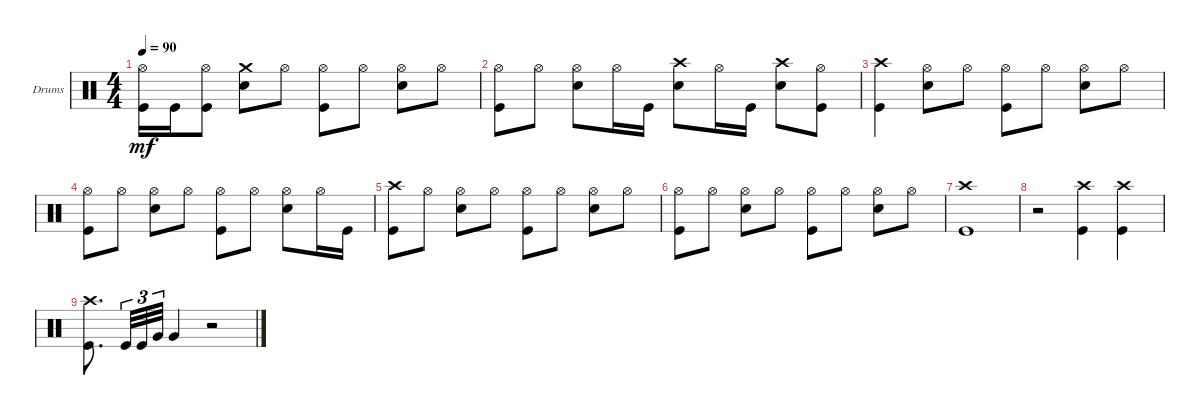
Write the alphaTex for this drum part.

\bracketExtendMode groupsimilarinstruments
\firstSystemTrackNameOrientation horizontal
\otherSystemsTrackNameOrientation horizontal
\track ("Arin Ilejay" "Drums") {instrument percussion}
\staff {score}
\articulation defaults
\ts (4 4)
\tempo 90
\clef neutral
\ks c
("Kick (hit)" "Hi-Hat (open)").16{dy mf} "Kick (hit)".16 ("Kick (hit)" "Hi-Hat (open)").8 ("Snare (hit) 2" "Crash medium (hit)").8 "Hi-Hat (open)".8 ("Hi-Hat (open)" "Kick (hit)").8 "Hi-Hat (open)".8 ("Snare (hit) 2" "Hi-Hat (open)").8 "Hi-Hat (open)".8 |
("Hi-Hat (open)" "Kick (hit)").8 "Hi-Hat (open)".8 ("Snare (hit) 2" "Hi-Hat (open)").8 "Hi-Hat (open)".16 "Kick (hit)".16 ("Snare (hit) 2" "Crash high (hit)").8 "Hi-Hat (open)".16 "Kick (hit)".16 ("Snare (hit) 2" "Crash high (hit)").8 ("Kick (hit)" "Hi-Hat (open)").8 |
("Crash high (hit)" "Kick (hit)").4 ("Snare (hit) 2" "Hi-Hat (open)").8 "Hi-Hat (open)".8 ("Hi-Hat (open)" "Kick (hit)").8 "Hi-Hat (open)".8 ("Snare (hit) 2" "Hi-Hat (open)").8 "Hi-Hat (open)".8 |
("Hi-Hat (open)" "Kick (hit)").8 "Hi-Hat (open)".8 ("Snare (hit) 2" "Hi-Hat (open)").8 "Hi-Hat (open)".8 ("Hi-Hat (open)" "Kick (hit)").8 "Hi-Hat (open)".8 ("Snare (hit) 2" "Hi-Hat (open)").8 "Hi-Hat (open)".16 "Kick (hit)".16 |
("Kick (hit)" "Crash high (hit)").8 "Hi-Hat (open)".8 ("Snare (hit) 2" "Hi-Hat (open)").8 "Hi-Hat (open)".8 ("Hi-Hat (open)" "Kick (hit)").8 "Hi-Hat (open)".8 ("Snare (hit) 2" "Hi-Hat (open)").8 "Hi-Hat (open)".8 |
("Hi-Hat (open)" "Kick (hit)").8 "Hi-Hat (open)".8 ("Snare (hit) 2" "Hi-Hat (open)").8 "Hi-Hat (open)".8 ("Hi-Hat (open)" "Kick (hit)").8 "Hi-Hat (open)".8 ("Snare (hit) 2" "Hi-Hat (open)").8 "Hi-Hat (open)".8 |
("Kick (hit)" "Crash high (hit)").1 |
r.2 ("Kick (hit)" "Crash high (hit)").4 ("Kick (hit)" "Crash high (hit)").4 |
("Crash high (hit)" "Kick (hit)").8{d} "Kick (hit)".32{tu (3 2)} "Kick (hit)".32{tu (3 2)} "Very Low Tom (hit)".32{tu (3 2)} "Very Low Tom (hit)".4 r.2
